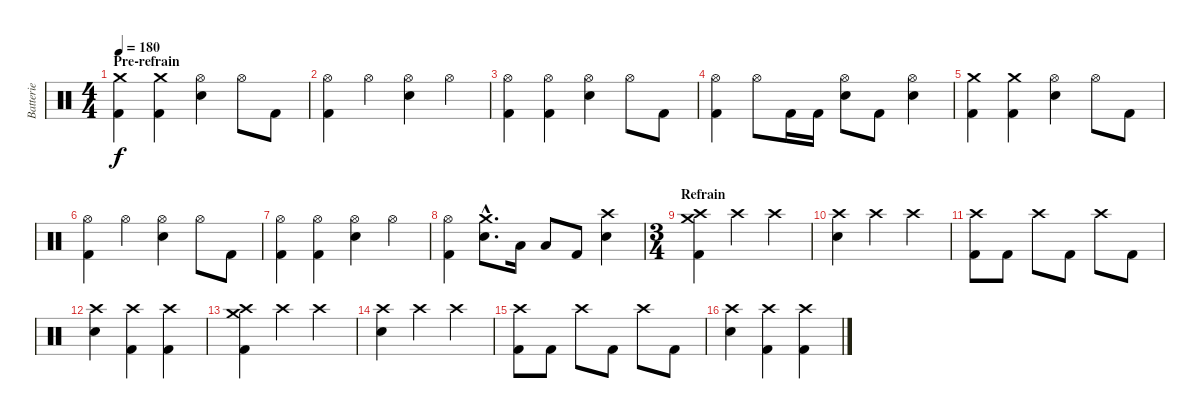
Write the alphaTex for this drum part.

\track ("Batterie" "Batterie") {instrument percussion}
\staff {score}
\articulation defaults
\ts (4 4)
\section ("" "Pre-refrain")
\tempo 180
\clef neutral
\ks c
("Crash medium (hit)" "Kick (hit) 2").4{dy f} ("Crash medium (hit)" "Kick (hit) 2").4 ("Hi-Hat (open)" "Electric Snare (hit)").4 "Hi-Hat (open)".8 "Kick (hit) 2".8 |
("Hi-Hat (open)" "Kick (hit) 2").4 "Hi-Hat (open)".4 ("Hi-Hat (open)" "Electric Snare (hit)").4 "Hi-Hat (open)".4 |
("Hi-Hat (open)" "Kick (hit) 2").4 ("Hi-Hat (open)" "Kick (hit) 2").4 ("Hi-Hat (open)" "Electric Snare (hit)").4 "Hi-Hat (open)".8 "Kick (hit) 2".8 |
("Hi-Hat (open)" "Kick (hit) 2").4 "Hi-Hat (open)".8 "Kick (hit) 2".16 "Kick (hit) 2".16 ("Hi-Hat (open)" "Electric Snare (hit)").8 "Kick (hit) 2".8 ("Hi-Hat (open)" "Electric Snare (hit)").4 |
("Crash medium (hit)" "Kick (hit) 2").4 ("Crash medium (hit)" "Kick (hit) 2").4 ("Hi-Hat (open)" "Electric Snare (hit)").4 "Hi-Hat (open)".8 "Kick (hit) 2".8 |
("Hi-Hat (open)" "Kick (hit) 2").4 "Hi-Hat (open)".4 ("Hi-Hat (open)" "Electric Snare (hit)").4 "Hi-Hat (open)".8 "Kick (hit) 2".8 |
("Hi-Hat (open)" "Kick (hit) 2").4 ("Hi-Hat (open)" "Kick (hit) 2").4 ("Hi-Hat (open)" "Electric Snare (hit)").4 "Hi-Hat (open)".4 |
("Hi-Hat (open)" "Kick (hit) 2").4 ("Crash medium (hit)"{hac} "Electric Snare (hit)"{hac}).8{d} "Low Tom (hit)".16 "Low Floor Tom (hit)".8 "Kick (hit) 2".8 ("Crash high (hit)" "Electric Snare (hit)").4 |
\ts (3 4)
\section ("" "Refrain")
("Crash medium (hit)" "Crash high (hit)" "Kick (hit) 2").4 "Crash high (hit)".4 "Crash high (hit)".4 |
("Crash high (hit)" "Electric Snare (hit)").4 "Crash high (hit)".4 "Crash high (hit)".4 |
("Crash high (hit)" "Kick (hit) 2").8 "Kick (hit) 2".8 "Crash high (hit)".8 "Kick (hit) 2".8 "Crash high (hit)".8 "Kick (hit) 2".8 |
("Crash high (hit)" "Electric Snare (hit)").4 ("Crash high (hit)" "Kick (hit) 2").4 ("Crash high (hit)" "Kick (hit) 2").4 |
("Crash medium (hit)" "Crash high (hit)" "Kick (hit) 2").4 "Crash high (hit)".4 "Crash high (hit)".4 |
("Crash high (hit)" "Electric Snare (hit)").4 "Crash high (hit)".4 "Crash high (hit)".4 |
("Crash high (hit)" "Kick (hit) 2").8 "Kick (hit) 2".8 "Crash high (hit)".8 "Kick (hit) 2".8 "Crash high (hit)".8 "Kick (hit) 2".8 |
("Crash high (hit)" "Electric Snare (hit)").4 ("Crash high (hit)" "Kick (hit) 2").4 ("Crash high (hit)" "Kick (hit) 2").4
